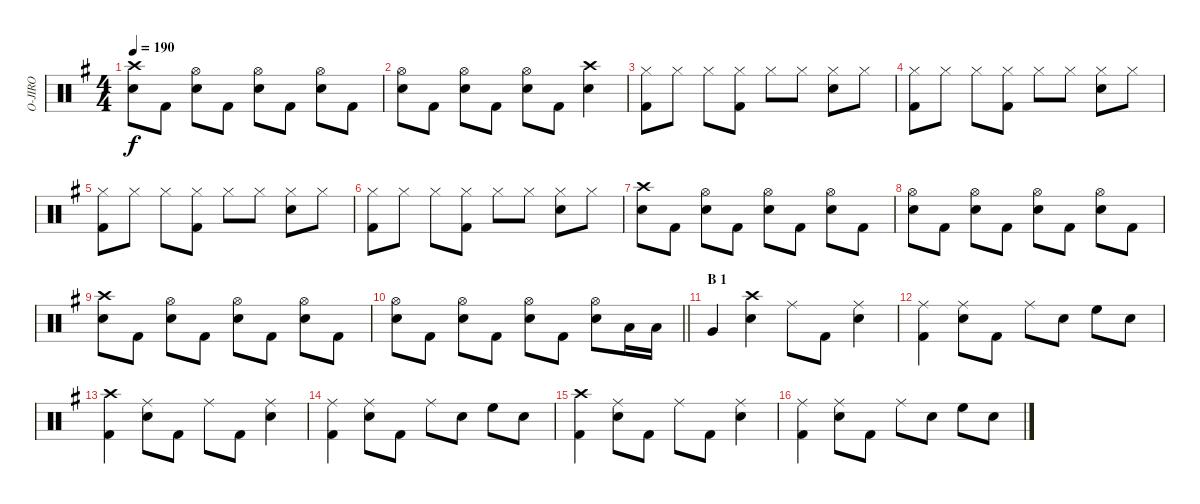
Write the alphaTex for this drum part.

\track ("O-JIRO" "O-JIRO") {instrument percussion}
\staff {score}
\articulation defaults
\ts (4 4)
\tempo 190
\clef neutral
\ks g
("Crash high (hit)" "Snare (hit) 2").8{dy f} "Kick (hit) 2".8 ("Hi-Hat (open)" "Snare (hit) 2").8 "Kick (hit) 2".8 ("Hi-Hat (open)" "Snare (hit) 2").8 "Kick (hit) 2".8 ("Hi-Hat (open)" "Snare (hit) 2").8 "Kick (hit) 2".8 |
("Hi-Hat (open)" "Snare (hit) 2").8 "Kick (hit) 2".8 ("Hi-Hat (open)" "Snare (hit) 2").8 "Kick (hit) 2".8 ("Hi-Hat (open)" "Snare (hit) 2").8 "Kick (hit) 2".8 ("Crash high (hit)" "Snare (hit) 2").4 |
("Hi-Hat (closed)" "Kick (hit) 2").8 "Hi-Hat (closed)".8 "Hi-Hat (closed)".8 ("Hi-Hat (closed)" "Kick (hit) 2").8 "Hi-Hat (closed)".8 "Hi-Hat (closed)".8 ("Hi-Hat (closed)" "Snare (hit) 2").8 "Hi-Hat (closed)".8 |
("Hi-Hat (closed)" "Kick (hit) 2").8 "Hi-Hat (closed)".8 "Hi-Hat (closed)".8 ("Hi-Hat (closed)" "Kick (hit) 2").8 "Hi-Hat (closed)".8 "Hi-Hat (closed)".8 ("Hi-Hat (closed)" "Snare (hit) 2").8 "Hi-Hat (closed)".8 |
("Hi-Hat (closed)" "Kick (hit) 2").8 "Hi-Hat (closed)".8 "Hi-Hat (closed)".8 ("Hi-Hat (closed)" "Kick (hit) 2").8 "Hi-Hat (closed)".8 "Hi-Hat (closed)".8 ("Hi-Hat (closed)" "Snare (hit) 2").8 "Hi-Hat (closed)".8 |
("Hi-Hat (closed)" "Kick (hit) 2").8 "Hi-Hat (closed)".8 "Hi-Hat (closed)".8 ("Hi-Hat (closed)" "Kick (hit) 2").8 "Hi-Hat (closed)".8 "Hi-Hat (closed)".8 ("Hi-Hat (closed)" "Snare (hit) 2").8 "Hi-Hat (closed)".8 |
("Crash high (hit)" "Snare (hit) 2").8 "Kick (hit) 2".8 ("Hi-Hat (open)" "Snare (hit) 2").8 "Kick (hit) 2".8 ("Hi-Hat (open)" "Snare (hit) 2").8 "Kick (hit) 2".8 ("Hi-Hat (open)" "Snare (hit) 2").8 "Kick (hit) 2".8 |
("Hi-Hat (open)" "Snare (hit) 2").8 "Kick (hit) 2".8 ("Hi-Hat (open)" "Snare (hit) 2").8 "Kick (hit) 2".8 ("Hi-Hat (open)" "Snare (hit) 2").8 "Kick (hit) 2".8 ("Hi-Hat (open)" "Snare (hit) 2").8 "Kick (hit) 2".8 |
("Crash high (hit)" "Snare (hit) 2").8 "Kick (hit) 2".8 ("Hi-Hat (open)" "Snare (hit) 2").8 "Kick (hit) 2".8 ("Hi-Hat (open)" "Snare (hit) 2").8 "Kick (hit) 2".8 ("Hi-Hat (open)" "Snare (hit) 2").8 "Kick (hit) 2".8 |
\barLineRight lightlight
("Hi-Hat (open)" "Snare (hit) 2").8 "Kick (hit) 2".8 ("Hi-Hat (open)" "Snare (hit) 2").8 "Kick (hit) 2".8 ("Hi-Hat (open)" "Snare (hit) 2").8 "Kick (hit) 2".8 ("Hi-Hat (open)" "Snare (hit) 2").8 "Low Tom (hit)".16 "Low Tom (hit)".16 |
\section ("" "B 1")
"Very Low Tom (hit)".4 ("Crash high (hit)" "Snare (hit) 2").4 "Ride (middle)".8 "Kick (hit) 2".8 ("Ride (middle)" "Snare (hit) 2").4 |
("Ride (middle)" "Kick (hit) 2").4 ("Ride (middle)" "Snare (hit) 2").8 "Kick (hit) 2".8 "Ride (middle)".8 "Snare (hit) 2".8 "High Floor Tom (hit)".8 "Snare (hit) 2".8 |
("Crash high (hit)" "Kick (hit) 2").4 ("Ride (middle)" "Snare (hit) 2").8 "Kick (hit) 2".8 "Ride (middle)".8 "Kick (hit) 2".8 ("Ride (middle)" "Snare (hit) 2").4 |
("Ride (middle)" "Kick (hit) 2").4 ("Ride (middle)" "Snare (hit) 2").8 "Kick (hit) 2".8 "Ride (middle)".8 "Snare (hit) 2".8 "High Floor Tom (hit)".8 "Snare (hit) 2".8 |
("Crash high (hit)" "Kick (hit) 2").4 ("Ride (middle)" "Snare (hit) 2").8 "Kick (hit) 2".8 "Ride (middle)".8 "Kick (hit) 2".8 ("Ride (middle)" "Snare (hit) 2").4 |
("Ride (middle)" "Kick (hit) 2").4 ("Ride (middle)" "Snare (hit) 2").8 "Kick (hit) 2".8 "Ride (middle)".8 "Snare (hit) 2".8 "High Floor Tom (hit)".8 "Snare (hit) 2".8
